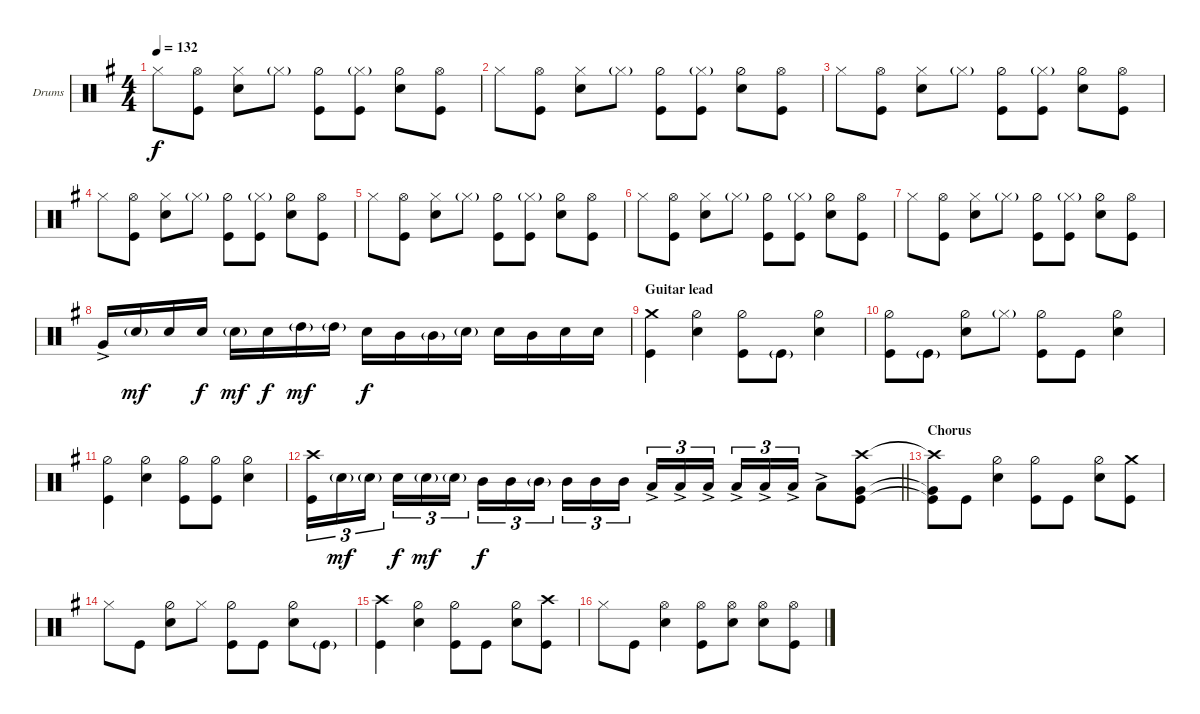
\bracketExtendMode groupsimilarinstruments
\firstSystemTrackNameOrientation horizontal
\otherSystemsTrackNameOrientation horizontal
\track ("Drumkit" "Drums") {instrument percussion}
\staff {score}
\articulation defaults
\ts (4 4)
\tempo 132
\clef neutral
\scale
0.333333
\ks g "Hi-Hat (closed)".8{dy f}
("Hi-Hat (open)" "Kick (hit)").8 ("Hi-Hat (closed)" "Snare (hit) 2").8 "Hi-Hat (closed)"{g}.8 ("Hi-Hat (half)" "Kick (hit)").8 ("Hi-Hat (closed)"{g} "Kick (hit)").8 ("Hi-Hat (half)" "Snare (hit) 2").8 ("Kick (hit)" "Hi-Hat (open)").8 |
\scale
0.333333 "Hi-Hat (closed)".8 ("Hi-Hat (open)" "Kick (hit)").8 ("Hi-Hat (closed)" "Snare (hit) 2").8 "Hi-Hat (closed)"{g}.8 ("Hi-Hat (half)" "Kick (hit)").8 ("Hi-Hat (closed)"{g} "Kick (hit)").8 ("Hi-Hat (half)" "Snare (hit) 2").8 ("Kick (hit)" "Hi-Hat (open)").8 |
\scale
0.333333 "Hi-Hat (closed)".8 ("Hi-Hat (open)" "Kick (hit)").8 ("Hi-Hat (closed)" "Snare (hit) 2").8 "Hi-Hat (closed)"{g}.8 ("Hi-Hat (half)" "Kick (hit)").8 ("Hi-Hat (closed)"{g} "Kick (hit)").8 ("Hi-Hat (half)" "Snare (hit) 2").8 ("Kick (hit)" "Hi-Hat (open)").8 |
\scale
0.333333 "Hi-Hat (closed)".8 ("Hi-Hat (open)" "Kick (hit)").8 ("Hi-Hat (closed)" "Snare (hit) 2").8 "Hi-Hat (closed)"{g}.8 ("Hi-Hat (half)" "Kick (hit)").8 ("Hi-Hat (closed)"{g} "Kick (hit)").8 ("Hi-Hat (half)" "Snare (hit) 2").8 ("Kick (hit)" "Hi-Hat (open)").8 |
\scale
0.333333 "Hi-Hat (closed)".8 ("Hi-Hat (open)" "Kick (hit)").8 ("Hi-Hat (closed)" "Snare (hit) 2").8 "Hi-Hat (closed)"{g}.8 ("Hi-Hat (half)" "Kick (hit)").8 ("Hi-Hat (closed)"{g} "Kick (hit)").8 ("Hi-Hat (half)" "Snare (hit) 2").8 ("Kick (hit)" "Hi-Hat (open)").8 |
\scale
0.333333 "Hi-Hat (closed)".8 ("Hi-Hat (open)" "Kick (hit)").8 ("Hi-Hat (closed)" "Snare (hit) 2").8 "Hi-Hat (closed)"{g}.8 ("Hi-Hat (half)" "Kick (hit)").8 ("Hi-Hat (closed)"{g} "Kick (hit)").8 ("Hi-Hat (half)" "Snare (hit) 2").8 ("Kick (hit)" "Hi-Hat (open)").8 |
\scale
0.333333 "Hi-Hat (closed)".8 ("Hi-Hat (open)" "Kick (hit)").8 ("Hi-Hat (closed)" "Snare (hit) 2").8 "Hi-Hat (closed)"{g}.8 ("Hi-Hat (half)" "Kick (hit)").8 ("Hi-Hat (closed)"{g} "Kick (hit)").8 ("Hi-Hat (half)" "Snare (hit) 2").8 ("Kick (hit)" "Hi-Hat (open)").8 |
\scale
0.333333 "Very Low Tom (hit)"{ac}.16 "Snare (hit) 2"{g}.16{dy mf} "Snare (hit) 2".16 "Snare (hit) 2".16{dy f} "Snare (hit) 2"{g}.16{dy mf} "Snare (hit) 2".16{dy f} "High Tom (hit)"{g}.16{dy mf} "High Tom (hit)"{g}.16 "Snare (hit) 2".16{dy f} "Mid Tom (hit)".16 "Mid Tom (hit)"{g}.16 "Snare (hit) 2"{g}.16 "Snare (hit) 2".16 "Mid Tom (hit)".16 "Snare (hit) 2".16 "Snare (hit) 2".16 |
\section ("" "Guitar lead")
\scale
0.333333 ("Kick (hit)" "Crash medium (hit)").4 ("Hi-Hat (half)" "Snare (hit) 2").4 ("Hi-Hat (half)" "Kick (hit)").8 "Kick (hit)"{g}.8 ("Hi-Hat (half)" "Snare (hit) 2").4 |
\scale
0.333333 ("Hi-Hat (half)" "Kick (hit)").8 "Kick (hit)"{g}.8 ("Hi-Hat (half)" "Snare (hit) 2").8 "Hi-Hat (closed)"{g}.8 ("Hi-Hat (half)" "Kick (hit)").8 "Kick (hit)".8 ("Hi-Hat (half)" "Snare (hit) 2").4 |
\scale
0.333333 ("Hi-Hat (half)" "Kick (hit)").4 ("Hi-Hat (half)" "Snare (hit) 2").4 ("Hi-Hat (half)" "Kick (hit)").8 ("Kick (hit)" "Hi-Hat (half)").8 ("Hi-Hat (half)" "Snare (hit) 2").4 |
\scale
0.427754
\barLineRight lightlight
("Crash high (hit)" "Kick (hit)").16{tu (3 2)} "Snare (hit) 2"{g}.16{tu (3 2) dy mf} "Snare (hit) 2"{g}.16{tu (3 2)} "Snare (hit) 2".16{tu (3 2) dy f} "Snare (hit) 2"{g}.16{tu (3 2) dy mf} "Snare (hit) 2"{g}.16{tu (3 2)} "Mid Tom (hit)".16{tu (3 2) dy f} "Mid Tom (hit)".16{tu (3 2)} "Mid Tom (hit)"{g}.16{tu (3 2)} "Mid Tom (hit)".16{tu (3 2)} "Mid Tom (hit)".16{tu (3 2)} "Mid Tom (hit)".16{tu (3 2)} "Low Tom (hit)"{ac}.16{tu (3 2)} "Low Tom (hit)"{ac}.16{tu (3 2)} "Low Tom (hit)"{ac}.16{tu (3 2)} "Low Tom (hit)"{ac}.16{tu (3 2)} "Low Tom (hit)"{ac}.16{tu (3 2)} "Low Tom (hit)"{ac}.16{tu (3 2)} "Low Tom (hit)"{ac}.8 ("Kick (hit)" "Crash high (hit)" "Very Low Tom (hit)").8 |
\section ("" "Chorus")
\scale
0.238912 ("Kick (hit)"{t} "Crash high (hit)"{t} "Very Low Tom (hit)"{t}).8 "Kick (hit)".8 ("Hi-Hat (half)" "Snare (hit) 2").4 ("Hi-Hat (half)" "Kick (hit)").8 "Kick (hit)".8 ("Hi-Hat (half)" "Snare (hit) 2").8 ("Kick (hit)" "Crash medium (hit)").8 |
\scale
0.333333 "Hi-Hat (closed)".8 "Kick (hit)".8 ("Hi-Hat (half)" "Snare (hit) 2").8 "Hi-Hat (closed)".8 ("Hi-Hat (half)" "Kick (hit)").8 "Kick (hit)".8 ("Hi-Hat (half)" "Snare (hit) 2").8 "Kick (hit)"{g}.8 |
\scale
0.333333 ("Kick (hit)" "Crash high (hit)").4 ("Hi-Hat (half)" "Snare (hit) 2").4 ("Hi-Hat (half)" "Kick (hit)").8 "Kick (hit)".8 ("Hi-Hat (half)" "Snare (hit) 2").8 ("Kick (hit)" "Crash high (hit)").8 |
\scale
0.333333 "Hi-Hat (closed)".8 "Kick (hit)".8 ("Hi-Hat (open)" "Snare (hit) 2").4 ("Hi-Hat (open)" "Kick (hit)").8 ("Hi-Hat (open)" "Snare (hit) 2").8 ("Hi-Hat (open)" "Snare (hit) 2").8 ("Kick (hit)" "Hi-Hat (open)").8
